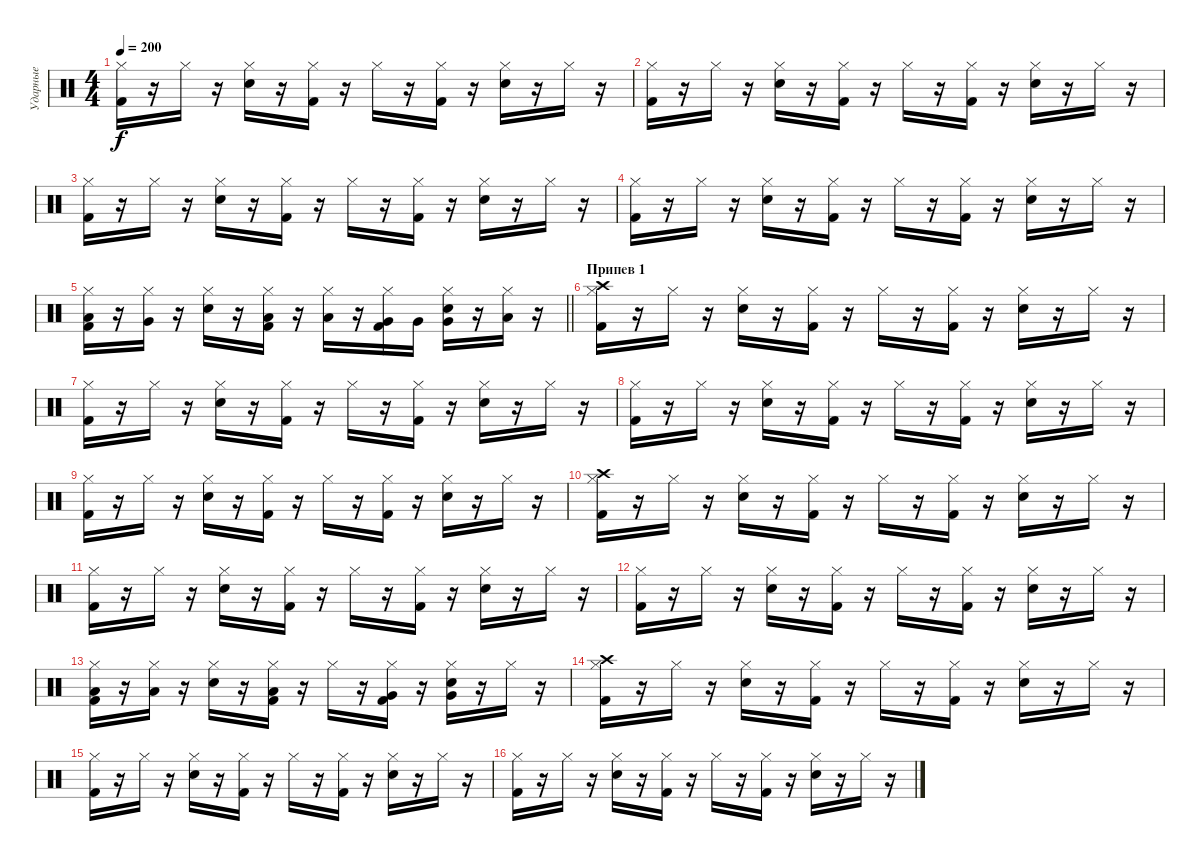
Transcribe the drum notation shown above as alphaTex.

\track ("Ударные" "Ударные") {instrument percussion}
\staff {score}
\articulation defaults
\ts (4 4)
\tempo 200
\clef neutral
\ks c
("Kick (hit) 2" "Hi-Hat (closed)").16{dy f} r.16 "Hi-Hat (closed)".16 r.16 ("Snare (hit) 2" "Hi-Hat (closed)").16 r.16 ("Kick (hit) 2" "Hi-Hat (closed)").16 r.16 "Hi-Hat (closed)".16 r.16 ("Kick (hit) 2" "Hi-Hat (closed)").16 r.16 ("Snare (hit) 2" "Hi-Hat (closed)").16 r.16 "Hi-Hat (closed)".16 r.16 |
("Kick (hit) 2" "Hi-Hat (closed)").16 r.16 "Hi-Hat (closed)".16 r.16 ("Snare (hit) 2" "Hi-Hat (closed)").16 r.16 ("Kick (hit) 2" "Hi-Hat (closed)").16 r.16 "Hi-Hat (closed)".16 r.16 ("Kick (hit) 2" "Hi-Hat (closed)").16 r.16 ("Snare (hit) 2" "Hi-Hat (closed)").16 r.16 "Hi-Hat (closed)".16 r.16 |
("Kick (hit) 2" "Hi-Hat (closed)").16 r.16 "Hi-Hat (closed)".16 r.16 ("Snare (hit) 2" "Hi-Hat (closed)").16 r.16 ("Kick (hit) 2" "Hi-Hat (closed)").16 r.16 "Hi-Hat (closed)".16 r.16 ("Kick (hit) 2" "Hi-Hat (closed)").16 r.16 ("Snare (hit) 2" "Hi-Hat (closed)").16 r.16 "Hi-Hat (closed)".16 r.16 |
("Kick (hit) 2" "Hi-Hat (closed)").16 r.16 "Hi-Hat (closed)".16 r.16 ("Snare (hit) 2" "Hi-Hat (closed)").16 r.16 ("Kick (hit) 2" "Hi-Hat (closed)").16 r.16 "Hi-Hat (closed)".16 r.16 ("Kick (hit) 2" "Hi-Hat (closed)").16 r.16 ("Snare (hit) 2" "Hi-Hat (closed)").16 r.16 "Hi-Hat (closed)".16 r.16 |
\barLineRight lightlight
("Kick (hit) 2" "Low Floor Tom (hit)" "Hi-Hat (closed)").16 r.16 ("Very Low Tom (hit)" "Hi-Hat (closed)").16 r.16 ("Snare (hit) 2" "Hi-Hat (closed)").16 r.16 ("Kick (hit) 2" "Low Floor Tom (hit)" "Hi-Hat (closed)").16 r.16 ("Low Floor Tom (hit)" "Hi-Hat (closed)").16 r.16 ("Kick (hit) 2" "Very Low Tom (hit)" "Hi-Hat (closed)").16 "Very Low Tom (hit)".16 ("Snare (hit) 2" "Very Low Tom (hit)" "Hi-Hat (closed)").16 r.16 ("Low Tom (hit)" "Hi-Hat (closed)").16 r.16 |
\section ("" "Припев 1")
("Kick (hit) 2" "Crash high (hit)" "Hi-Hat (closed)").16 r.16 "Hi-Hat (closed)".16 r.16 ("Snare (hit) 2" "Hi-Hat (closed)").16 r.16 ("Kick (hit) 2" "Hi-Hat (closed)").16 r.16 "Hi-Hat (closed)".16 r.16 ("Kick (hit) 2" "Hi-Hat (closed)").16 r.16 ("Snare (hit) 2" "Hi-Hat (closed)").16 r.16 "Hi-Hat (closed)".16 r.16 |
("Kick (hit) 2" "Hi-Hat (closed)").16 r.16 "Hi-Hat (closed)".16 r.16 ("Snare (hit) 2" "Hi-Hat (closed)").16 r.16 ("Kick (hit) 2" "Hi-Hat (closed)").16 r.16 "Hi-Hat (closed)".16 r.16 ("Kick (hit) 2" "Hi-Hat (closed)").16 r.16 ("Snare (hit) 2" "Hi-Hat (closed)").16 r.16 "Hi-Hat (closed)".16 r.16 |
("Kick (hit) 2" "Hi-Hat (closed)").16 r.16 "Hi-Hat (closed)".16 r.16 ("Snare (hit) 2" "Hi-Hat (closed)").16 r.16 ("Kick (hit) 2" "Hi-Hat (closed)").16 r.16 "Hi-Hat (closed)".16 r.16 ("Kick (hit) 2" "Hi-Hat (closed)").16 r.16 ("Snare (hit) 2" "Hi-Hat (closed)").16 r.16 "Hi-Hat (closed)".16 r.16 |
("Kick (hit) 2" "Hi-Hat (closed)").16 r.16 "Hi-Hat (closed)".16 r.16 ("Snare (hit) 2" "Hi-Hat (closed)").16 r.16 ("Kick (hit) 2" "Hi-Hat (closed)").16 r.16 "Hi-Hat (closed)".16 r.16 ("Kick (hit) 2" "Hi-Hat (closed)").16 r.16 ("Snare (hit) 2" "Hi-Hat (closed)").16 r.16 "Hi-Hat (closed)".16 r.16 |
("Kick (hit) 2" "Crash high (hit)" "Hi-Hat (closed)").16 r.16 "Hi-Hat (closed)".16 r.16 ("Snare (hit) 2" "Hi-Hat (closed)").16 r.16 ("Kick (hit) 2" "Hi-Hat (closed)").16 r.16 "Hi-Hat (closed)".16 r.16 ("Kick (hit) 2" "Hi-Hat (closed)").16 r.16 ("Snare (hit) 2" "Hi-Hat (closed)").16 r.16 "Hi-Hat (closed)".16 r.16 |
("Kick (hit) 2" "Hi-Hat (closed)").16 r.16 "Hi-Hat (closed)".16 r.16 ("Snare (hit) 2" "Hi-Hat (closed)").16 r.16 ("Kick (hit) 2" "Hi-Hat (closed)").16 r.16 "Hi-Hat (closed)".16 r.16 ("Kick (hit) 2" "Hi-Hat (closed)").16 r.16 ("Snare (hit) 2" "Hi-Hat (closed)").16 r.16 "Hi-Hat (closed)".16 r.16 |
("Kick (hit) 2" "Hi-Hat (closed)").16 r.16 "Hi-Hat (closed)".16 r.16 ("Snare (hit) 2" "Hi-Hat (closed)").16 r.16 ("Kick (hit) 2" "Hi-Hat (closed)").16 r.16 "Hi-Hat (closed)".16 r.16 ("Kick (hit) 2" "Hi-Hat (closed)").16 r.16 ("Snare (hit) 2" "Hi-Hat (closed)").16 r.16 "Hi-Hat (closed)".16 r.16 |
("Kick (hit) 2" "Low Floor Tom (hit)" "Hi-Hat (closed)").16 r.16 ("Low Floor Tom (hit)" "Hi-Hat (closed)").16 r.16 ("Snare (hit) 2" "Hi-Hat (closed)").16 r.16 ("Kick (hit) 2" "Low Floor Tom (hit)" "Hi-Hat (closed)").16 r.16 "Hi-Hat (closed)".16 r.16 ("Kick (hit) 2" "Very Low Tom (hit)" "Hi-Hat (closed)").16 r.16 ("Snare (hit) 2" "Very Low Tom (hit)" "Hi-Hat (closed)").16 r.16 "Hi-Hat (closed)".16 r.16 |
("Kick (hit) 2" "Crash high (hit)" "Hi-Hat (closed)").16 r.16 "Hi-Hat (closed)".16 r.16 ("Snare (hit) 2" "Hi-Hat (closed)").16 r.16 ("Kick (hit) 2" "Hi-Hat (closed)").16 r.16 "Hi-Hat (closed)".16 r.16 ("Kick (hit) 2" "Hi-Hat (closed)").16 r.16 ("Snare (hit) 2" "Hi-Hat (closed)").16 r.16 "Hi-Hat (closed)".16 r.16 |
("Kick (hit) 2" "Hi-Hat (closed)").16 r.16 "Hi-Hat (closed)".16 r.16 ("Snare (hit) 2" "Hi-Hat (closed)").16 r.16 ("Kick (hit) 2" "Hi-Hat (closed)").16 r.16 "Hi-Hat (closed)".16 r.16 ("Kick (hit) 2" "Hi-Hat (closed)").16 r.16 ("Snare (hit) 2" "Hi-Hat (closed)").16 r.16 "Hi-Hat (closed)".16 r.16 |
("Kick (hit) 2" "Hi-Hat (closed)").16 r.16 "Hi-Hat (closed)".16 r.16 ("Snare (hit) 2" "Hi-Hat (closed)").16 r.16 ("Kick (hit) 2" "Hi-Hat (closed)").16 r.16 "Hi-Hat (closed)".16 r.16 ("Kick (hit) 2" "Hi-Hat (closed)").16 r.16 ("Snare (hit) 2" "Hi-Hat (closed)").16 r.16 "Hi-Hat (closed)".16 r.16
